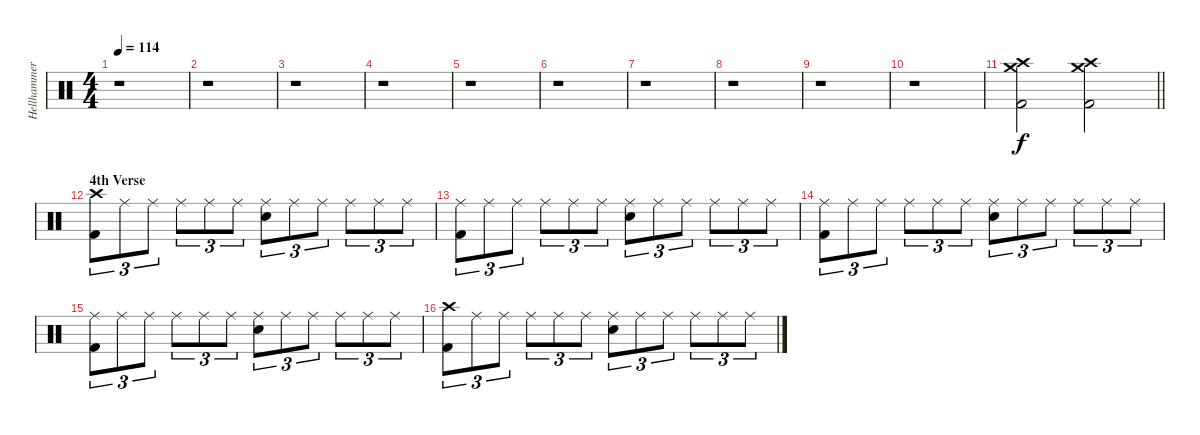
\track ("Hellhammer" "Hellhammer") {instrument percussion}
\staff {score}
\articulation defaults
\ts (4 4)
\tempo 114
\clef neutral
\ks c
r.1{dy f} |
r.1 |
r.1 |
r.1 |
r.1 |
r.1 |
r.1 |
r.1 |
r.1 |
r.1 |
\barLineRight lightlight
("Crash high (hit)" "Crash medium (hit)" "Kick (hit) 2").2 ("Crash high (hit)" "Crash medium (hit)" "Kick (hit) 2").2 |
\section ("" "4th Verse")
("Crash high (hit)" "Kick (hit) 2").8{tu (3 2)} "Ride (middle)".8{tu (3 2)} "Ride (middle)".8{tu (3 2)} "Ride (middle)".8{tu (3 2)} "Ride (middle)".8{tu (3 2)} "Ride (middle)".8{tu (3 2)} ("Ride (middle)" "Snare (hit) 2").8{tu (3 2)} "Ride (middle)".8{tu (3 2)} "Ride (middle)".8{tu (3 2)} "Ride (middle)".8{tu (3 2)} "Ride (middle)".8{tu (3 2)} "Ride (middle)".8{tu (3 2)} |
("Ride (middle)" "Kick (hit) 2").8{tu (3 2)} "Ride (middle)".8{tu (3 2)} "Ride (middle)".8{tu (3 2)} "Ride (middle)".8{tu (3 2)} "Ride (middle)".8{tu (3 2)} "Ride (middle)".8{tu (3 2)} ("Ride (middle)" "Snare (hit) 2").8{tu (3 2)} "Ride (middle)".8{tu (3 2)} "Ride (middle)".8{tu (3 2)} "Ride (middle)".8{tu (3 2)} "Ride (middle)".8{tu (3 2)} "Ride (middle)".8{tu (3 2)} |
("Ride (middle)" "Kick (hit) 2").8{tu (3 2)} "Ride (middle)".8{tu (3 2)} "Ride (middle)".8{tu (3 2)} "Ride (middle)".8{tu (3 2)} "Ride (middle)".8{tu (3 2)} "Ride (middle)".8{tu (3 2)} ("Ride (middle)" "Snare (hit) 2").8{tu (3 2)} "Ride (middle)".8{tu (3 2)} "Ride (middle)".8{tu (3 2)} "Ride (middle)".8{tu (3 2)} "Ride (middle)".8{tu (3 2)} "Ride (middle)".8{tu (3 2)} |
("Ride (middle)" "Kick (hit) 2").8{tu (3 2)} "Ride (middle)".8{tu (3 2)} "Ride (middle)".8{tu (3 2)} "Ride (middle)".8{tu (3 2)} "Ride (middle)".8{tu (3 2)} "Ride (middle)".8{tu (3 2)} ("Ride (middle)" "Snare (hit) 2").8{tu (3 2)} "Ride (middle)".8{tu (3 2)} "Ride (middle)".8{tu (3 2)} "Ride (middle)".8{tu (3 2)} "Ride (middle)".8{tu (3 2)} "Ride (middle)".8{tu (3 2)} |
("Crash high (hit)" "Kick (hit) 2").8{tu (3 2)} "Ride (middle)".8{tu (3 2)} "Ride (middle)".8{tu (3 2)} "Ride (middle)".8{tu (3 2)} "Ride (middle)".8{tu (3 2)} "Ride (middle)".8{tu (3 2)} ("Ride (middle)" "Snare (hit) 2").8{tu (3 2)} "Ride (middle)".8{tu (3 2)} "Ride (middle)".8{tu (3 2)} "Ride (middle)".8{tu (3 2)} "Ride (middle)".8{tu (3 2)} "Ride (middle)".8{tu (3 2)}
